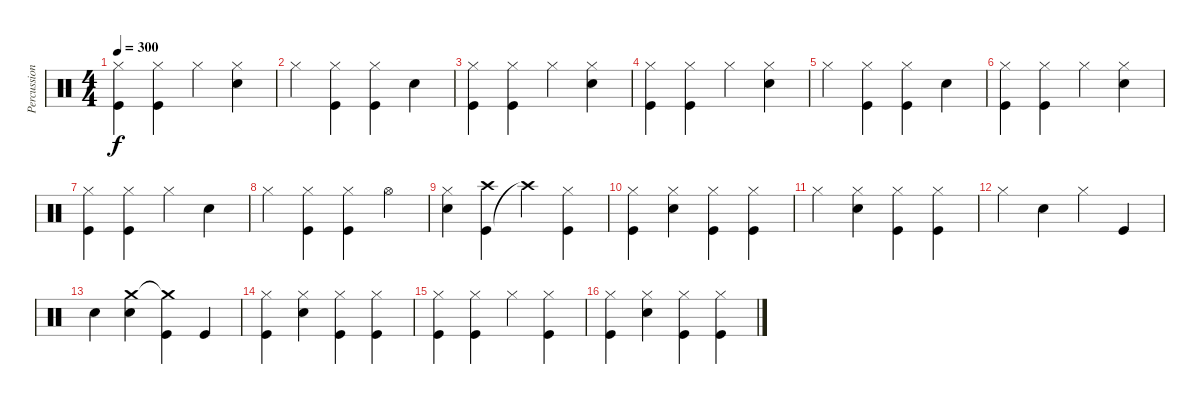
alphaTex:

\track ("Percussion" "Percussion") {instrument percussion}
\staff {score}
\articulation defaults
\ts (4 4)
\tempo 300
\clef neutral
\ks c
("Kick (hit)" "Hi-Hat (closed)").4{dy f} ("Kick (hit)" "Hi-Hat (closed)").4 "Hi-Hat (closed)".4 ("Electric Snare (hit)" "Hi-Hat (closed)").4 |
"Hi-Hat (closed)".4 ("Kick (hit)" "Hi-Hat (closed)").4 ("Kick (hit)" "Hi-Hat (closed)").4 "Electric Snare (hit)".4 |
("Kick (hit)" "Hi-Hat (closed)").4 ("Kick (hit)" "Hi-Hat (closed)").4 "Hi-Hat (closed)".4 ("Electric Snare (hit)" "Hi-Hat (closed)").4 |
("Kick (hit)" "Hi-Hat (closed)").4 ("Kick (hit)" "Hi-Hat (closed)").4 "Hi-Hat (closed)".4 ("Electric Snare (hit)" "Hi-Hat (closed)").4 |
"Hi-Hat (closed)".4 ("Kick (hit)" "Hi-Hat (closed)").4 ("Kick (hit)" "Hi-Hat (closed)").4 "Electric Snare (hit)".4 |
("Kick (hit)" "Hi-Hat (closed)").4 ("Kick (hit)" "Hi-Hat (closed)").4 "Hi-Hat (closed)".4 ("Electric Snare (hit)" "Hi-Hat (closed)").4 |
("Kick (hit)" "Hi-Hat (closed)").4 ("Kick (hit)" "Hi-Hat (closed)").4 "Hi-Hat (closed)".4 "Electric Snare (hit)".4 |
"Hi-Hat (closed)".4 ("Kick (hit)" "Hi-Hat (closed)").4 ("Kick (hit)" "Hi-Hat (closed)").4 "Hi-Hat (open)".4 |
("Electric Snare (hit)" "Hi-Hat (closed)").4 ("Kick (hit)" "Crash high (hit)").4 "Crash high (hit)"{t}.4 ("Kick (hit)" "Hi-Hat (closed)").4 |
("Kick (hit)" "Hi-Hat (closed)").4 ("Electric Snare (hit)" "Hi-Hat (closed)").4 ("Kick (hit)" "Hi-Hat (closed)").4 ("Kick (hit)" "Hi-Hat (closed)").4 |
"Hi-Hat (closed)".4 ("Electric Snare (hit)" "Hi-Hat (closed)").4 ("Kick (hit)" "Hi-Hat (closed)").4 ("Kick (hit)" "Hi-Hat (closed)").4 |
"Hi-Hat (closed)".4 "Electric Snare (hit)".4 "Hi-Hat (closed)".4 "Kick (hit)".4 |
"Electric Snare (hit)".4 ("Electric Snare (hit)" "Crash medium (hit)").4 ("Kick (hit)" "Crash medium (hit)"{t}).4 "Kick (hit)".4 |
("Kick (hit)" "Hi-Hat (closed)").4 ("Electric Snare (hit)" "Hi-Hat (closed)").4 ("Kick (hit)" "Hi-Hat (closed)").4 ("Kick (hit)" "Hi-Hat (closed)").4 |
("Kick (hit)" "Hi-Hat (closed)").4 ("Kick (hit)" "Hi-Hat (closed)").4 "Hi-Hat (closed)".4 ("Kick (hit)" "Hi-Hat (closed)").4 |
("Kick (hit)" "Hi-Hat (closed)").4 ("Electric Snare (hit)" "Hi-Hat (closed)").4 ("Kick (hit)" "Hi-Hat (closed)").4 ("Kick (hit)" "Hi-Hat (closed)").4
